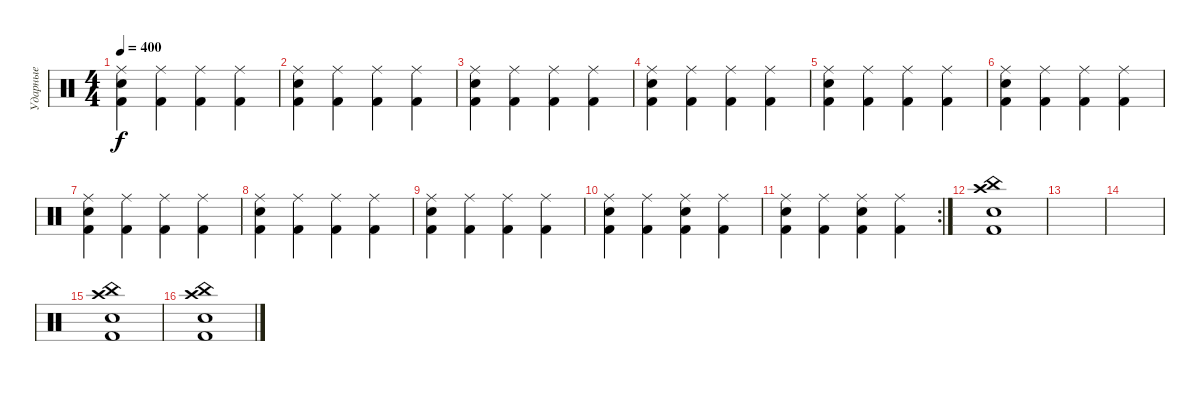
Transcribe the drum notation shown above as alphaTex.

\track ("Ударные" "Ударные") {instrument percussion}
\staff {score}
\articulation defaults
\ts (4 4)
\tempo 400
\clef neutral
\ks c
("Kick (hit) 2" "Electric Snare (hit)" "Ride (middle)").4{dy f} ("Kick (hit) 2" "Ride (middle)").4 ("Kick (hit) 2" "Ride (middle)").4 ("Kick (hit) 2" "Ride (middle)").4 |
("Kick (hit) 2" "Electric Snare (hit)" "Ride (middle)").4 ("Kick (hit) 2" "Ride (middle)").4 ("Kick (hit) 2" "Ride (middle)").4 ("Kick (hit) 2" "Ride (middle)").4 |
("Kick (hit) 2" "Electric Snare (hit)" "Ride (middle)").4 ("Kick (hit) 2" "Ride (middle)").4 ("Kick (hit) 2" "Ride (middle)").4 ("Kick (hit) 2" "Ride (middle)").4 |
("Kick (hit) 2" "Electric Snare (hit)" "Ride (middle)").4 ("Kick (hit) 2" "Ride (middle)").4 ("Kick (hit) 2" "Ride (middle)").4 ("Kick (hit) 2" "Ride (middle)").4 |
("Kick (hit) 2" "Electric Snare (hit)" "Ride (middle)").4 ("Kick (hit) 2" "Ride (middle)").4 ("Kick (hit) 2" "Ride (middle)").4 ("Kick (hit) 2" "Ride (middle)").4 |
("Kick (hit) 2" "Electric Snare (hit)" "Ride (middle)").4 ("Kick (hit) 2" "Ride (middle)").4 ("Kick (hit) 2" "Ride (middle)").4 ("Kick (hit) 2" "Ride (middle)").4 |
("Kick (hit) 2" "Electric Snare (hit)" "Ride (middle)").4 ("Kick (hit) 2" "Ride (middle)").4 ("Kick (hit) 2" "Ride (middle)").4 ("Kick (hit) 2" "Ride (middle)").4 |
("Kick (hit) 2" "Electric Snare (hit)" "Ride (middle)").4 ("Kick (hit) 2" "Ride (middle)").4 ("Kick (hit) 2" "Ride (middle)").4 ("Kick (hit) 2" "Ride (middle)").4 |
("Kick (hit) 2" "Electric Snare (hit)" "Ride (middle)").4 ("Kick (hit) 2" "Ride (middle)").4 ("Kick (hit) 2" "Ride (middle)").4 ("Kick (hit) 2" "Ride (middle)").4 |
("Kick (hit) 2" "Electric Snare (hit)" "Ride (middle)").4 ("Kick (hit) 2" "Ride (middle)").4 ("Kick (hit) 2" "Ride (middle)" "Electric Snare (hit)").4 ("Kick (hit) 2" "Ride (middle)").4 |
\rc 2
("Kick (hit) 2" "Electric Snare (hit)" "Ride (middle)").4 ("Kick (hit) 2" "Ride (middle)").4 ("Kick (hit) 2" "Ride (middle)" "Electric Snare (hit)").4 ("Kick (hit) 2" "Ride (middle)").4 |
("Kick (hit) 2" "Electric Snare (hit)" "Crash high (hit)" "China (hit)").1 |
|
|
("Kick (hit) 2" "Electric Snare (hit)" "Crash high (hit)" "China (hit)").1 |
("Kick (hit) 2" "Electric Snare (hit)" "Crash high (hit)" "China (hit)").1
